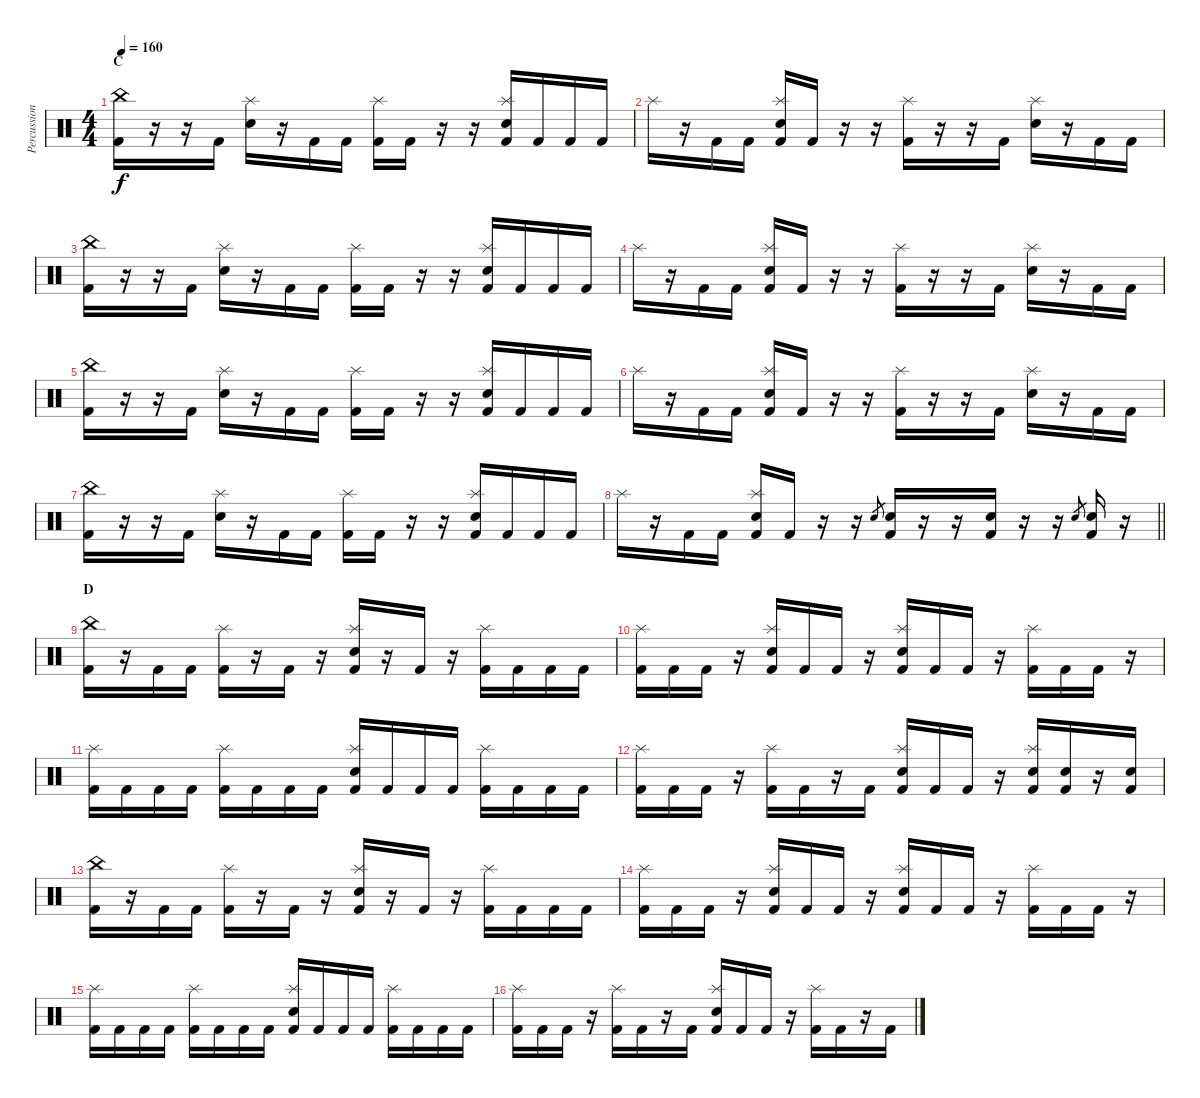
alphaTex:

\track ("Percussion" "Percussion") {instrument percussion}
\staff {score}
\articulation defaults
\ts (4 4)
\section ("" "C")
\tempo 160
\clef neutral
\ks c
("China (hit)" "Kick (hit) 2").16{dy f} r.16 r.16 "Kick (hit) 2".16 ("Splash (hit)" "Electric Snare (hit)").16 r.16 "Kick (hit) 2".16 "Kick (hit) 2".16 ("Splash (hit)" "Kick (hit) 2").16 "Kick (hit) 2".16 r.16 r.16 ("Splash (hit)" "Electric Snare (hit)" "Kick (hit) 2").16 "Kick (hit) 2".16 "Kick (hit) 2".16 "Kick (hit) 2".16 |
"Splash (hit)".16 r.16 "Kick (hit) 2".16 "Kick (hit) 2".16 ("Splash (hit)" "Electric Snare (hit)" "Kick (hit) 2").16 "Kick (hit) 2".16 r.16 r.16 ("Splash (hit)" "Kick (hit) 2").16 r.16 r.16 "Kick (hit) 2".16 ("Splash (hit)" "Electric Snare (hit)").16 r.16 "Kick (hit) 2".16 "Kick (hit) 2".16 |
("China (hit)" "Kick (hit) 2").16 r.16 r.16 "Kick (hit) 2".16 ("Splash (hit)" "Electric Snare (hit)").16 r.16 "Kick (hit) 2".16 "Kick (hit) 2".16 ("Splash (hit)" "Kick (hit) 2").16 "Kick (hit) 2".16 r.16 r.16 ("Splash (hit)" "Electric Snare (hit)" "Kick (hit) 2").16 "Kick (hit) 2".16 "Kick (hit) 2".16 "Kick (hit) 2".16 |
"Splash (hit)".16 r.16 "Kick (hit) 2".16 "Kick (hit) 2".16 ("Splash (hit)" "Electric Snare (hit)" "Kick (hit) 2").16 "Kick (hit) 2".16 r.16 r.16 ("Splash (hit)" "Kick (hit) 2").16 r.16 r.16 "Kick (hit) 2".16 ("Splash (hit)" "Electric Snare (hit)").16 r.16 "Kick (hit) 2".16 "Kick (hit) 2".16 |
("China (hit)" "Kick (hit) 2").16 r.16 r.16 "Kick (hit) 2".16 ("Splash (hit)" "Electric Snare (hit)").16 r.16 "Kick (hit) 2".16 "Kick (hit) 2".16 ("Splash (hit)" "Kick (hit) 2").16 "Kick (hit) 2".16 r.16 r.16 ("Splash (hit)" "Electric Snare (hit)" "Kick (hit) 2").16 "Kick (hit) 2".16 "Kick (hit) 2".16 "Kick (hit) 2".16 |
"Splash (hit)".16 r.16 "Kick (hit) 2".16 "Kick (hit) 2".16 ("Splash (hit)" "Electric Snare (hit)" "Kick (hit) 2").16 "Kick (hit) 2".16 r.16 r.16 ("Splash (hit)" "Kick (hit) 2").16 r.16 r.16 "Kick (hit) 2".16 ("Splash (hit)" "Electric Snare (hit)").16 r.16 "Kick (hit) 2".16 "Kick (hit) 2".16 |
("China (hit)" "Kick (hit) 2").16 r.16 r.16 "Kick (hit) 2".16 ("Splash (hit)" "Electric Snare (hit)").16 r.16 "Kick (hit) 2".16 "Kick (hit) 2".16 ("Splash (hit)" "Kick (hit) 2").16 "Kick (hit) 2".16 r.16 r.16 ("Splash (hit)" "Electric Snare (hit)" "Kick (hit) 2").16 "Kick (hit) 2".16 "Kick (hit) 2".16 "Kick (hit) 2".16 |
\barLineRight lightlight "Splash (hit)".16
r.16 "Kick (hit) 2".16 "Kick (hit) 2".16 ("Splash (hit)" "Electric Snare (hit)" "Kick (hit) 2").16 "Kick (hit) 2".16 r.16 r.16 "Electric Snare (hit)".8{gr} ("Electric Snare (hit)" "Kick (hit) 2").16 r.16 r.16 ("Electric Snare (hit)" "Kick (hit) 2").16 r.16 r.16 "Electric Snare (hit)".8{gr} ("Electric Snare (hit)" "Kick (hit) 2").16 r.16 |
\section ("" "D")
("China (hit)" "Kick (hit) 2").16 r.16 "Kick (hit) 2".16 "Kick (hit) 2".16 ("Splash (hit)" "Kick (hit) 2").16 r.16 "Kick (hit) 2".16 r.16 ("Splash (hit)" "Electric Snare (hit)" "Kick (hit) 2").16 r.16 "Kick (hit) 2".16 r.16 ("Splash (hit)" "Kick (hit) 2").16 "Kick (hit) 2".16 "Kick (hit) 2".16 "Kick (hit) 2".16 |
("Splash (hit)" "Kick (hit) 2").16 "Kick (hit) 2".16 "Kick (hit) 2".16 r.16 ("Splash (hit)" "Electric Snare (hit)" "Kick (hit) 2").16 "Kick (hit) 2".16 "Kick (hit) 2".16 r.16 ("Splash (hit)" "Electric Snare (hit)" "Kick (hit) 2").16 "Kick (hit) 2".16 "Kick (hit) 2".16 r.16 ("Splash (hit)" "Kick (hit) 2").16 "Kick (hit) 2".16 "Kick (hit) 2".16 r.16 |
("Splash (hit)" "Kick (hit) 2").16 "Kick (hit) 2".16 "Kick (hit) 2".16 "Kick (hit) 2".16 ("Splash (hit)" "Kick (hit) 2").16 "Kick (hit) 2".16 "Kick (hit) 2".16 "Kick (hit) 2".16 ("Splash (hit)" "Electric Snare (hit)" "Kick (hit) 2").16 "Kick (hit) 2".16 "Kick (hit) 2".16 "Kick (hit) 2".16 ("Splash (hit)" "Kick (hit) 2").16 "Kick (hit) 2".16 "Kick (hit) 2".16 "Kick (hit) 2".16 |
("Splash (hit)" "Kick (hit) 2").16 "Kick (hit) 2".16 "Kick (hit) 2".16 r.16 ("Splash (hit)" "Kick (hit) 2").16 "Kick (hit) 2".16 r.16 "Kick (hit) 2".16 ("Splash (hit)" "Electric Snare (hit)" "Kick (hit) 2").16 "Kick (hit) 2".16 "Kick (hit) 2".16 r.16 ("Splash (hit)" "Electric Snare (hit)" "Kick (hit) 2").16 ("Electric Snare (hit)" "Kick (hit) 2").16 r.16 ("Electric Snare (hit)" "Kick (hit) 2").16 |
("China (hit)" "Kick (hit) 2").16 r.16 "Kick (hit) 2".16 "Kick (hit) 2".16 ("Splash (hit)" "Kick (hit) 2").16 r.16 "Kick (hit) 2".16 r.16 ("Splash (hit)" "Electric Snare (hit)" "Kick (hit) 2").16 r.16 "Kick (hit) 2".16 r.16 ("Splash (hit)" "Kick (hit) 2").16 "Kick (hit) 2".16 "Kick (hit) 2".16 "Kick (hit) 2".16 |
("Splash (hit)" "Kick (hit) 2").16 "Kick (hit) 2".16 "Kick (hit) 2".16 r.16 ("Splash (hit)" "Electric Snare (hit)" "Kick (hit) 2").16 "Kick (hit) 2".16 "Kick (hit) 2".16 r.16 ("Splash (hit)" "Electric Snare (hit)" "Kick (hit) 2").16 "Kick (hit) 2".16 "Kick (hit) 2".16 r.16 ("Splash (hit)" "Kick (hit) 2").16 "Kick (hit) 2".16 "Kick (hit) 2".16 r.16 |
("Splash (hit)" "Kick (hit) 2").16 "Kick (hit) 2".16 "Kick (hit) 2".16 "Kick (hit) 2".16 ("Splash (hit)" "Kick (hit) 2").16 "Kick (hit) 2".16 "Kick (hit) 2".16 "Kick (hit) 2".16 ("Splash (hit)" "Electric Snare (hit)" "Kick (hit) 2").16 "Kick (hit) 2".16 "Kick (hit) 2".16 "Kick (hit) 2".16 ("Splash (hit)" "Kick (hit) 2").16 "Kick (hit) 2".16 "Kick (hit) 2".16 "Kick (hit) 2".16 |
("Splash (hit)" "Kick (hit) 2").16 "Kick (hit) 2".16 "Kick (hit) 2".16 r.16 ("Splash (hit)" "Kick (hit) 2").16 "Kick (hit) 2".16 r.16 "Kick (hit) 2".16 ("Splash (hit)" "Electric Snare (hit)" "Kick (hit) 2").16 "Kick (hit) 2".16 "Kick (hit) 2".16 r.16 ("Splash (hit)" "Kick (hit) 2").16 "Kick (hit) 2".16 r.16 "Kick (hit) 2".16
